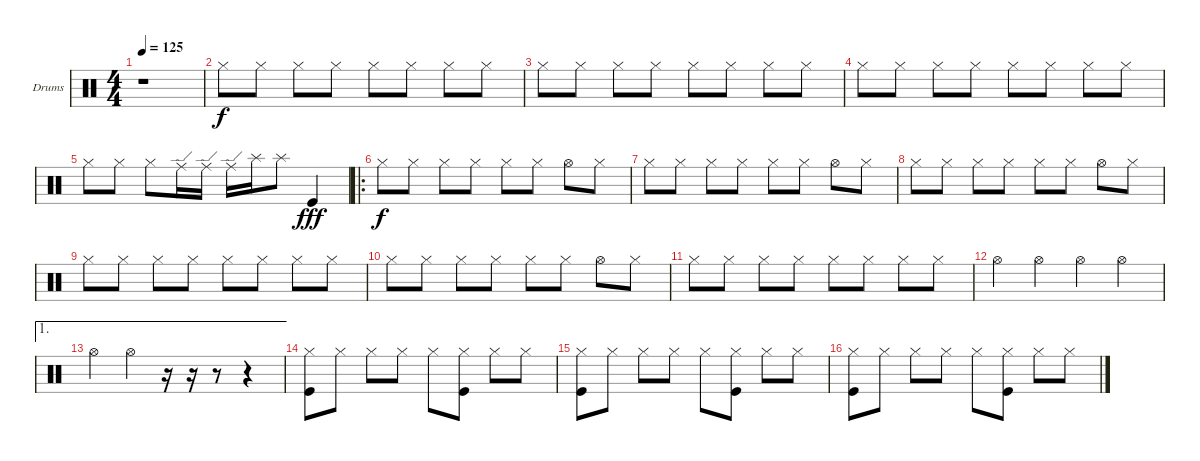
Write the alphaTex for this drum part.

\bracketExtendMode groupsimilarinstruments
\firstSystemTrackNameOrientation horizontal
\otherSystemsTrackNameOrientation horizontal
\track ("Drumkit" "Drums") {instrument percussion}
\staff {score}
\articulation defaults
\ts (4 4)
\tempo 125
\clef neutral
\ks c
r.1{dy f} |
"Hi-Hat (closed)".8 "Hi-Hat (closed)".8 "Hi-Hat (closed)".8 "Hi-Hat (closed)".8 "Hi-Hat (closed)".8 "Hi-Hat (closed)".8 "Hi-Hat (closed)".8 "Hi-Hat (closed)".8 |
"Hi-Hat (closed)".8 "Hi-Hat (closed)".8 "Hi-Hat (closed)".8 "Hi-Hat (closed)".8 "Hi-Hat (closed)".8 "Hi-Hat (closed)".8 "Hi-Hat (closed)".8 "Hi-Hat (closed)".8 |
"Hi-Hat (closed)".8 "Hi-Hat (closed)".8 "Hi-Hat (closed)".8 "Hi-Hat (closed)".8 "Hi-Hat (closed)".8 "Hi-Hat (closed)".8 "Hi-Hat (closed)".8 "Hi-Hat (closed)".8 |
"Hi-Hat (closed)".8 "Hi-Hat (closed)".8 "Hi-Hat (closed)".8 "Ride (edge)".16 "Ride (edge)".16 "Ride (edge)".16 "Splash (hit)".16 "Splash (hit)".8 "Kick (hit)".4{dy fff} |
\ro "Hi-Hat (closed)".8{dy f} "Hi-Hat (closed)".8 "Hi-Hat (closed)".8 "Hi-Hat (closed)".8 "Hi-Hat (closed)".8 "Hi-Hat (closed)".8 "Hi-Hat (open)".8 "Hi-Hat (closed)".8
|
"Hi-Hat (closed)".8 "Hi-Hat (closed)".8 "Hi-Hat (closed)".8 "Hi-Hat (closed)".8 "Hi-Hat (closed)".8 "Hi-Hat (closed)".8 "Hi-Hat (open)".8 "Hi-Hat (closed)".8 |
"Hi-Hat (closed)".8 "Hi-Hat (closed)".8 "Hi-Hat (closed)".8 "Hi-Hat (closed)".8 "Hi-Hat (closed)".8 "Hi-Hat (closed)".8 "Hi-Hat (open)".8 "Hi-Hat (closed)".8 |
"Hi-Hat (closed)".8 "Hi-Hat (closed)".8 "Hi-Hat (closed)".8 "Hi-Hat (closed)".8 "Hi-Hat (closed)".8 "Hi-Hat (closed)".8 "Hi-Hat (closed)".8 "Hi-Hat (closed)".8 |
"Hi-Hat (closed)".8 "Hi-Hat (closed)".8 "Hi-Hat (closed)".8 "Hi-Hat (closed)".8 "Hi-Hat (closed)".8 "Hi-Hat (closed)".8 "Hi-Hat (open)".8 "Hi-Hat (closed)".8 |
"Hi-Hat (closed)".8 "Hi-Hat (closed)".8 "Hi-Hat (closed)".8 "Hi-Hat (closed)".8 "Hi-Hat (closed)".8 "Hi-Hat (closed)".8 "Hi-Hat (closed)".8 "Hi-Hat (closed)".8 |
"Hi-Hat (open)".4 "Hi-Hat (open)".4 "Hi-Hat (open)".4 "Hi-Hat (open)".4 |
\ae 1 "Hi-Hat (open)".4 "Hi-Hat (open)".4
r.16 r.16 r.8 r.4 |
("Kick (hit)" "Hi-Hat (closed)").8 "Hi-Hat (closed)".8 "Hi-Hat (closed)".8 "Hi-Hat (closed)".8 "Hi-Hat (closed)".8 ("Kick (hit)" "Hi-Hat (closed)").8 "Hi-Hat (closed)".8 "Hi-Hat (closed)".8 |
("Kick (hit)" "Hi-Hat (closed)").8 "Hi-Hat (closed)".8 "Hi-Hat (closed)".8 "Hi-Hat (closed)".8 "Hi-Hat (closed)".8 ("Kick (hit)" "Hi-Hat (closed)").8 "Hi-Hat (closed)".8 "Hi-Hat (closed)".8 |
("Kick (hit)" "Hi-Hat (closed)").8 "Hi-Hat (closed)".8 "Hi-Hat (closed)".8 "Hi-Hat (closed)".8 "Hi-Hat (closed)".8 ("Kick (hit)" "Hi-Hat (closed)").8 "Hi-Hat (closed)".8 "Hi-Hat (closed)".8
